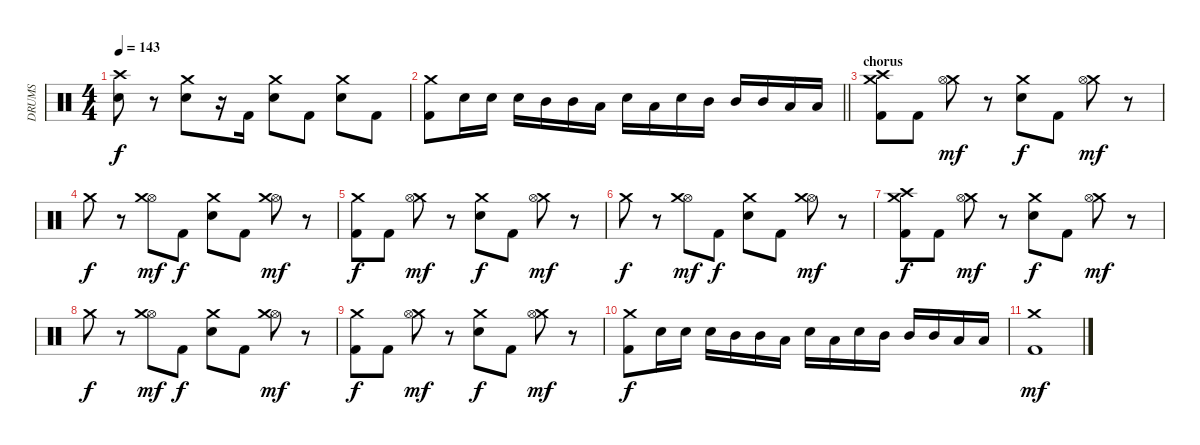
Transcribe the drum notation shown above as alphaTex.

\track ("DRUMS" "DRUMS") {instrument percussion}
\staff {score}
\articulation defaults
\ts (4 4)
\tempo 143
\clef neutral
\ks c
("Crash high (hit)" "Electric Snare (hit)").8{dy f} r.8 ("Crash medium (hit)" "Electric Snare (hit)").8 r.16 "Kick (hit) 2".16 ("Crash medium (hit)" "Electric Snare (hit)").8 "Kick (hit) 2".8 ("Crash medium (hit)" "Electric Snare (hit)").8 "Kick (hit) 2".8 |
\barLineRight lightlight
("Crash medium (hit)" "Kick (hit) 2").8 "Electric Snare (hit)".16 "Electric Snare (hit)".16 "Electric Snare (hit)".16 "Mid Tom (hit)".16 "Mid Tom (hit)".16 "Low Tom (hit)".16 "Electric Snare (hit)".16 "Low Tom (hit)".16 "Electric Snare (hit)".16 "Mid Tom (hit)".16 "Mid Tom (hit)".16 "Mid Tom (hit)".16 "Low Tom (hit)".16 "Low Tom (hit)".16 |
\section ("" "chorus")
("Crash medium (hit)" "Crash high (hit)" "Kick (hit) 2").8 "Kick (hit) 2".8 ("Crash medium (hit)" "Hi-Hat (open)").8{dy mf} r.8 ("Crash medium (hit)" "Electric Snare (hit)").8{dy f} "Kick (hit) 2".8 ("Crash medium (hit)" "Hi-Hat (open)").8{dy mf} r.8 |
"Crash medium (hit)".8{dy f} r.8 ("Hi-Hat (open)" "Crash medium (hit)").8{dy mf} "Kick (hit) 2".8{dy f} ("Crash medium (hit)" "Electric Snare (hit)").8 "Kick (hit) 2".8 ("Hi-Hat (open)" "Crash medium (hit)").8{dy mf} r.8 |
("Crash medium (hit)" "Kick (hit) 2").8{dy f} "Kick (hit) 2".8 ("Crash medium (hit)" "Hi-Hat (open)").8{dy mf} r.8 ("Crash medium (hit)" "Electric Snare (hit)").8{dy f} "Kick (hit) 2".8 ("Crash medium (hit)" "Hi-Hat (open)").8{dy mf} r.8 |
"Crash medium (hit)".8{dy f} r.8 ("Hi-Hat (open)" "Crash medium (hit)").8{dy mf} "Kick (hit) 2".8{dy f} ("Crash medium (hit)" "Electric Snare (hit)").8 "Kick (hit) 2".8 ("Hi-Hat (open)" "Crash medium (hit)").8{dy mf} r.8 |
("Crash medium (hit)" "Crash high (hit)" "Kick (hit) 2").8{dy f} "Kick (hit) 2".8 ("Crash medium (hit)" "Hi-Hat (open)").8{dy mf} r.8 ("Crash medium (hit)" "Electric Snare (hit)").8{dy f} "Kick (hit) 2".8 ("Crash medium (hit)" "Hi-Hat (open)").8{dy mf} r.8 |
"Crash medium (hit)".8{dy f} r.8 ("Hi-Hat (open)" "Crash medium (hit)").8{dy mf} "Kick (hit) 2".8{dy f} ("Crash medium (hit)" "Electric Snare (hit)").8 "Kick (hit) 2".8 ("Hi-Hat (open)" "Crash medium (hit)").8{dy mf} r.8 |
("Crash medium (hit)" "Kick (hit) 2").8{dy f} "Kick (hit) 2".8 ("Crash medium (hit)" "Hi-Hat (open)").8{dy mf} r.8 ("Crash medium (hit)" "Electric Snare (hit)").8{dy f} "Kick (hit) 2".8 ("Crash medium (hit)" "Hi-Hat (open)").8{dy mf} r.8 |
("Crash medium (hit)" "Kick (hit) 2").8{dy f} "Electric Snare (hit)".16 "Electric Snare (hit)".16 "Electric Snare (hit)".16 "Mid Tom (hit)".16 "Mid Tom (hit)".16 "Low Tom (hit)".16 "Electric Snare (hit)".16 "Low Tom (hit)".16 "Electric Snare (hit)".16 "Mid Tom (hit)".16 "Mid Tom (hit)".16 "Mid Tom (hit)".16 "Low Tom (hit)".16 "Low Tom (hit)".16 |
("Crash medium (hit)" "Kick (hit) 2").1{dy mf}
